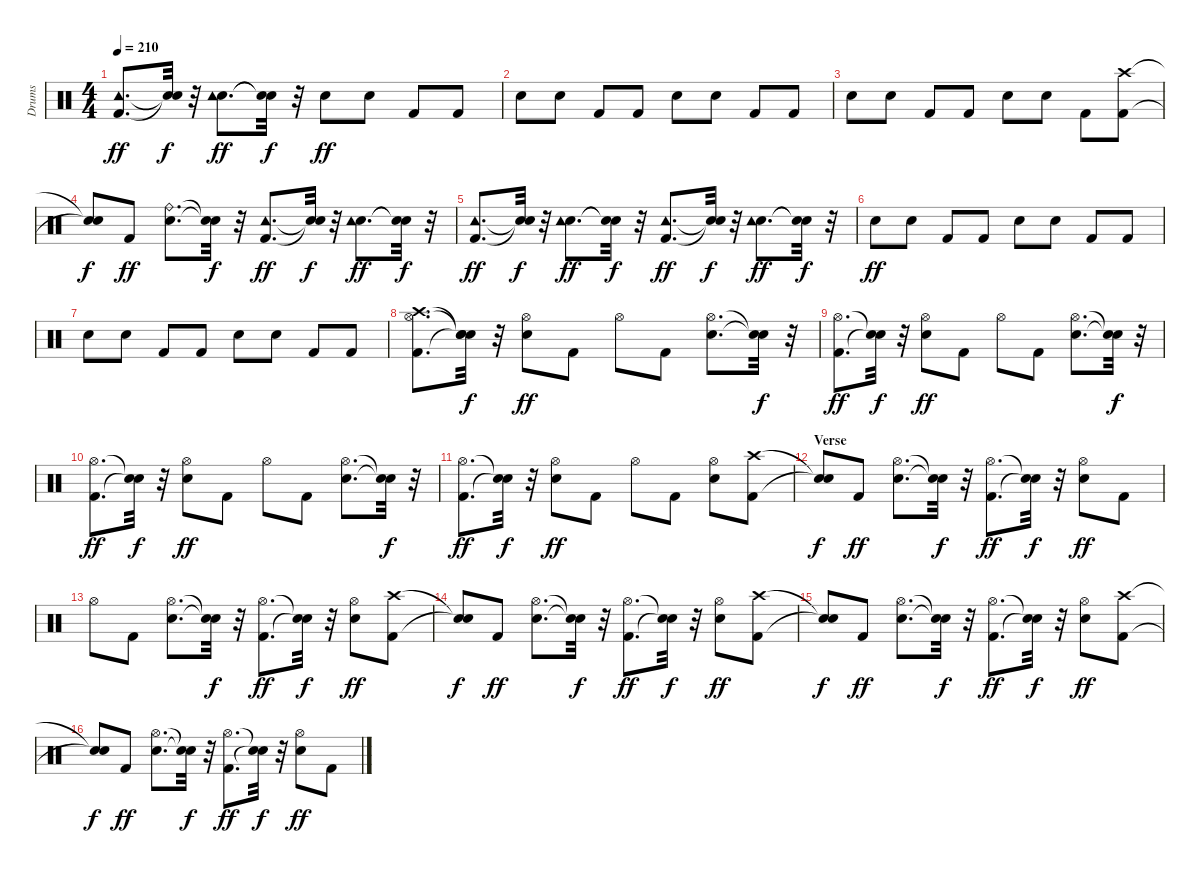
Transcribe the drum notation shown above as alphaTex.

\track ("Drums" "Drums") {instrument percussion}
\staff {score}
\articulation defaults
\ts (4 4)
\tempo 210
\clef neutral
\ks c
("Kick (hit) 2" "Tambourine (hit)").8{d dy ff} ("Snare (hit)"{t} "Snare (hit)"{t}).32{dy f} r.32 ("Snare (hit) 2" "Tambourine (hit)").8{d dy ff} ("Snare (hit)"{t} "Snare (hit)"{t}).32{dy f} r.32 "Snare (hit) 2".8{dy ff} "Snare (hit) 2".8 "Kick (hit) 2".8 "Kick (hit) 2".8 |
"Snare (hit) 2".8 "Snare (hit) 2".8 "Kick (hit) 2".8 "Kick (hit) 2".8 "Snare (hit) 2".8 "Snare (hit) 2".8 "Kick (hit) 2".8 "Kick (hit) 2".8 |
"Snare (hit) 2".8 "Snare (hit) 2".8 "Kick (hit) 2".8 "Kick (hit) 2".8 "Snare (hit) 2".8 "Snare (hit) 2".8 "Kick (hit) 2".8 ("Kick (hit) 2" "Crash high (hit)").8 |
("Snare (hit)"{t} "Snare (hit)"{t}).8{dy f} "Kick (hit) 2".8{dy ff} ("Snare (hit) 2" "Ride (bell)").8{d} ("Snare (hit)"{t} "Snare (hit)"{t}).32{dy f} r.32 ("Kick (hit) 2" "Tambourine (hit)").8{d dy ff} ("Snare (hit)"{t} "Snare (hit)"{t}).32{dy f} r.32 ("Snare (hit) 2" "Tambourine (hit)").8{d dy ff} ("Snare (hit)"{t} "Snare (hit)"{t}).32{dy f} r.32 |
("Kick (hit) 2" "Tambourine (hit)").8{d dy ff} ("Snare (hit)"{t} "Snare (hit)"{t}).32{dy f} r.32 ("Snare (hit) 2" "Tambourine (hit)").8{d dy ff} ("Snare (hit)"{t} "Snare (hit)"{t}).32{dy f} r.32 ("Kick (hit) 2" "Tambourine (hit)").8{d dy ff} ("Snare (hit)"{t} "Snare (hit)"{t}).32{dy f} r.32 ("Snare (hit) 2" "Tambourine (hit)").8{d dy ff} ("Snare (hit)"{t} "Snare (hit)"{t}).32{dy f} r.32 |
"Snare (hit) 2".8{dy ff} "Snare (hit) 2".8 "Kick (hit) 2".8 "Kick (hit) 2".8 "Snare (hit) 2".8 "Snare (hit) 2".8 "Kick (hit) 2".8 "Kick (hit) 2".8 |
"Snare (hit) 2".8 "Snare (hit) 2".8 "Kick (hit) 2".8 "Kick (hit) 2".8 "Snare (hit) 2".8 "Snare (hit) 2".8 "Kick (hit) 2".8 "Kick (hit) 2".8 |
("Kick (hit) 2" "Hi-Hat (open)" "Crash high (hit)").8{d} ("Snare (hit)"{t} "Snare (hit)"{t} "Snare (hit)"{t}).32{dy f} r.32 ("Snare (hit) 2" "Hi-Hat (open)").8{dy ff} "Kick (hit) 2".8 "Hi-Hat (open)".8 "Kick (hit) 2".8 ("Snare (hit) 2" "Hi-Hat (open)").8{d} ("Snare (hit)"{t} "Snare (hit)"{t}).32{dy f} r.32 |
("Kick (hit) 2" "Hi-Hat (open)").8{d dy ff} ("Snare (hit)"{t} "Snare (hit)"{t}).32{dy f} r.32 ("Snare (hit) 2" "Hi-Hat (open)").8{dy ff} "Kick (hit) 2".8 "Hi-Hat (open)".8 "Kick (hit) 2".8 ("Snare (hit) 2" "Hi-Hat (open)").8{d} ("Snare (hit)"{t} "Snare (hit)"{t}).32{dy f} r.32 |
("Kick (hit) 2" "Hi-Hat (open)").8{d dy ff} ("Snare (hit)"{t} "Snare (hit)"{t}).32{dy f} r.32 ("Snare (hit) 2" "Hi-Hat (open)").8{dy ff} "Kick (hit) 2".8 "Hi-Hat (open)".8 "Kick (hit) 2".8 ("Snare (hit) 2" "Hi-Hat (open)").8{d} ("Snare (hit)"{t} "Snare (hit)"{t}).32{dy f} r.32 |
("Kick (hit) 2" "Hi-Hat (open)").8{d dy ff} ("Snare (hit)"{t} "Snare (hit)"{t}).32{dy f} r.32 ("Snare (hit) 2" "Hi-Hat (open)").8{dy ff} "Kick (hit) 2".8 "Hi-Hat (open)".8 "Kick (hit) 2".8 ("Snare (hit) 2" "Hi-Hat (open)").8 ("Kick (hit) 2" "Crash high (hit)").8 |
\section ("" "Verse")
("Snare (hit)"{t} "Snare (hit)"{t}).8{dy f} "Kick (hit) 2".8{dy ff} ("Snare (hit) 2" "Hi-Hat (open)").8{d} ("Snare (hit)"{t} "Snare (hit)"{t}).32{dy f} r.32 ("Kick (hit) 2" "Hi-Hat (open)").8{d dy ff} ("Snare (hit)"{t} "Snare (hit)"{t}).32{dy f} r.32 ("Snare (hit) 2" "Hi-Hat (open)").8{dy ff} "Kick (hit) 2".8 |
"Hi-Hat (open)".8 "Kick (hit) 2".8 ("Snare (hit) 2" "Hi-Hat (open)").8{d} ("Snare (hit)"{t} "Snare (hit)"{t}).32{dy f} r.32 ("Kick (hit) 2" "Hi-Hat (open)").8{d dy ff} ("Snare (hit)"{t} "Snare (hit)"{t}).32{dy f} r.32 ("Snare (hit) 2" "Hi-Hat (open)").8{dy ff} ("Kick (hit) 2" "Crash high (hit)").8 |
("Snare (hit)"{t} "Snare (hit)"{t}).8{dy f} "Kick (hit) 2".8{dy ff} ("Snare (hit) 2" "Hi-Hat (open)").8{d} ("Snare (hit)"{t} "Snare (hit)"{t}).32{dy f} r.32 ("Kick (hit) 2" "Hi-Hat (open)").8{d dy ff} ("Snare (hit)"{t} "Snare (hit)"{t}).32{dy f} r.32 ("Snare (hit) 2" "Hi-Hat (open)").8{dy ff} ("Kick (hit) 2" "Crash high (hit)").8 |
("Snare (hit)"{t} "Snare (hit)"{t}).8{dy f} "Kick (hit) 2".8{dy ff} ("Snare (hit) 2" "Hi-Hat (open)").8{d} ("Snare (hit)"{t} "Snare (hit)"{t}).32{dy f} r.32 ("Kick (hit) 2" "Hi-Hat (open)").8{d dy ff} ("Snare (hit)"{t} "Snare (hit)"{t}).32{dy f} r.32 ("Snare (hit) 2" "Hi-Hat (open)").8{dy ff} ("Kick (hit) 2" "Crash high (hit)").8 |
("Snare (hit)"{t} "Snare (hit)"{t}).8{dy f} "Kick (hit) 2".8{dy ff} ("Snare (hit) 2" "Hi-Hat (open)").8{d} ("Snare (hit)"{t} "Snare (hit)"{t}).32{dy f} r.32 ("Kick (hit) 2" "Hi-Hat (open)").8{d dy ff} ("Snare (hit)"{t} "Snare (hit)"{t}).32{dy f} r.32 ("Snare (hit) 2" "Hi-Hat (open)").8{dy ff} "Kick (hit) 2".8
